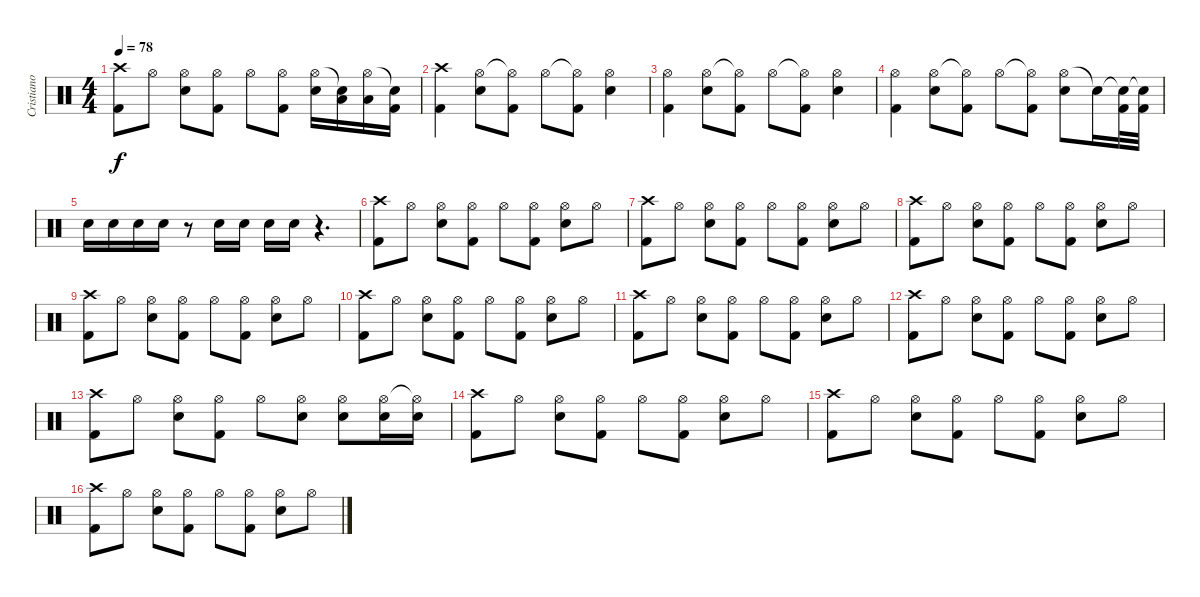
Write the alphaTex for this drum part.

\track ("Cristiano Mozzati" "Cristiano ") {instrument percussion}
\staff {score}
\articulation defaults
\ts (4 4)
\tempo 78
\clef neutral
\ks c
("Crash high (hit)" "Kick (hit) 2").8{dy f} "Hi-Hat (open)".8 ("Hi-Hat (open)" "Electric Snare (hit)").8 ("Hi-Hat (open)" "Kick (hit) 2").8 "Hi-Hat (open)".8 ("Hi-Hat (open)" "Kick (hit) 2").8 ("Hi-Hat (open)" "Electric Snare (hit)").16 ("Snare (hit)"{t} "Low Tom (hit)").16 ("Hi-Hat (open)" "Low Floor Tom (hit)").16 ("Snare (hit)"{t} "Kick (hit) 2").16 |
("Crash high (hit)" "Kick (hit) 2").4 ("Hi-Hat (open)" "Electric Snare (hit)").8 ("Hi-Hat (open)"{t} "Kick (hit) 2").8 "Hi-Hat (open)".8 ("Hi-Hat (open)"{t} "Kick (hit) 2").8 ("Hi-Hat (open)" "Electric Snare (hit)").4 |
("Hi-Hat (open)" "Kick (hit) 2").4 ("Hi-Hat (open)" "Electric Snare (hit)").8 ("Hi-Hat (open)"{t} "Kick (hit) 2").8 "Hi-Hat (open)".8 ("Hi-Hat (open)"{t} "Kick (hit) 2").8 ("Hi-Hat (open)" "Electric Snare (hit)").4 |
("Hi-Hat (open)" "Kick (hit) 2").4 ("Hi-Hat (open)" "Electric Snare (hit)").8 ("Hi-Hat (open)"{t} "Kick (hit) 2").8 "Hi-Hat (open)".8 ("Hi-Hat (open)"{t} "Kick (hit) 2").8 ("Hi-Hat (open)" "Electric Snare (hit)").8 "Snare (hit)"{t}.16 ("Snare (hit)"{t} "Kick (hit) 2").32 ("Snare (hit)"{t} "Kick (hit) 2").32 |
"Electric Snare (hit)".16 "Electric Snare (hit)".16 "Electric Snare (hit)".16 "Electric Snare (hit)".16 r.8 "Electric Snare (hit)".16 "Electric Snare (hit)".16 "Electric Snare (hit)".16 "Electric Snare (hit)".16 r.4{d} |
("Crash high (hit)" "Kick (hit) 2").8 "Hi-Hat (open)".8 ("Hi-Hat (open)" "Electric Snare (hit)").8 ("Hi-Hat (open)" "Kick (hit) 2").8 "Hi-Hat (open)".8 ("Hi-Hat (open)" "Kick (hit) 2").8 ("Hi-Hat (open)" "Electric Snare (hit)").8 "Hi-Hat (open)".8 |
("Crash high (hit)" "Kick (hit) 2").8 "Hi-Hat (open)".8 ("Hi-Hat (open)" "Electric Snare (hit)").8 ("Hi-Hat (open)" "Kick (hit) 2").8 "Hi-Hat (open)".8 ("Hi-Hat (open)" "Kick (hit) 2").8 ("Hi-Hat (open)" "Electric Snare (hit)").8 "Hi-Hat (open)".8 |
("Crash high (hit)" "Kick (hit) 2").8 "Hi-Hat (open)".8 ("Hi-Hat (open)" "Electric Snare (hit)").8 ("Hi-Hat (open)" "Kick (hit) 2").8 "Hi-Hat (open)".8 ("Hi-Hat (open)" "Kick (hit) 2").8 ("Hi-Hat (open)" "Electric Snare (hit)").8 "Hi-Hat (open)".8 |
("Crash high (hit)" "Kick (hit) 2").8 "Hi-Hat (open)".8 ("Hi-Hat (open)" "Electric Snare (hit)").8 ("Hi-Hat (open)" "Kick (hit) 2").8 "Hi-Hat (open)".8 ("Hi-Hat (open)" "Kick (hit) 2").8 ("Hi-Hat (open)" "Electric Snare (hit)").8 "Hi-Hat (open)".8 |
("Crash high (hit)" "Kick (hit) 2").8 "Hi-Hat (open)".8 ("Hi-Hat (open)" "Electric Snare (hit)").8 ("Hi-Hat (open)" "Kick (hit) 2").8 "Hi-Hat (open)".8 ("Hi-Hat (open)" "Kick (hit) 2").8 ("Hi-Hat (open)" "Electric Snare (hit)").8 "Hi-Hat (open)".8 |
("Crash high (hit)" "Kick (hit) 2").8 "Hi-Hat (open)".8 ("Hi-Hat (open)" "Electric Snare (hit)").8 ("Hi-Hat (open)" "Kick (hit) 2").8 "Hi-Hat (open)".8 ("Hi-Hat (open)" "Kick (hit) 2").8 ("Hi-Hat (open)" "Electric Snare (hit)").8 "Hi-Hat (open)".8 |
("Crash high (hit)" "Kick (hit) 2").8 "Hi-Hat (open)".8 ("Hi-Hat (open)" "Electric Snare (hit)").8 ("Hi-Hat (open)" "Kick (hit) 2").8 "Hi-Hat (open)".8 ("Hi-Hat (open)" "Kick (hit) 2").8 ("Hi-Hat (open)" "Electric Snare (hit)").8 "Hi-Hat (open)".8 |
("Crash high (hit)" "Kick (hit) 2").8 "Hi-Hat (open)".8 ("Hi-Hat (open)" "Electric Snare (hit)").8 ("Hi-Hat (open)" "Kick (hit) 2").8 "Hi-Hat (open)".8 ("Hi-Hat (open)" "Electric Snare (hit)").8 ("Hi-Hat (open)" "Electric Snare (hit)").8 ("Hi-Hat (open)" "Electric Snare (hit)").16 ("Hi-Hat (open)"{t} "Electric Snare (hit)").16 |
("Crash high (hit)" "Kick (hit) 2").8 "Hi-Hat (open)".8 ("Hi-Hat (open)" "Electric Snare (hit)").8 ("Hi-Hat (open)" "Kick (hit) 2").8 "Hi-Hat (open)".8 ("Hi-Hat (open)" "Kick (hit) 2").8 ("Hi-Hat (open)" "Electric Snare (hit)").8 "Hi-Hat (open)".8 |
("Crash high (hit)" "Kick (hit) 2").8 "Hi-Hat (open)".8 ("Hi-Hat (open)" "Electric Snare (hit)").8 ("Hi-Hat (open)" "Kick (hit) 2").8 "Hi-Hat (open)".8 ("Hi-Hat (open)" "Kick (hit) 2").8 ("Hi-Hat (open)" "Electric Snare (hit)").8 "Hi-Hat (open)".8 |
("Crash high (hit)" "Kick (hit) 2").8 "Hi-Hat (open)".8 ("Hi-Hat (open)" "Electric Snare (hit)").8 ("Hi-Hat (open)" "Kick (hit) 2").8 "Hi-Hat (open)".8 ("Hi-Hat (open)" "Kick (hit) 2").8 ("Hi-Hat (open)" "Electric Snare (hit)").8 "Hi-Hat (open)".8
